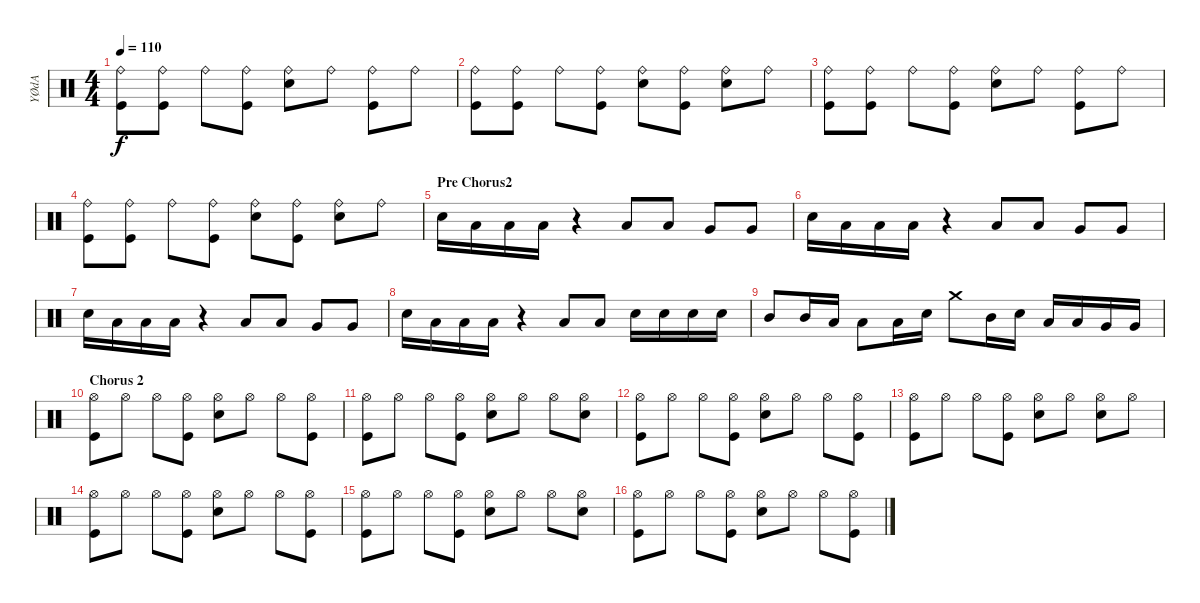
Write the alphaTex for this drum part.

\track ("YØdA" "YØdA") {instrument percussion}
\staff {score}
\articulation defaults
\ts (4 4)
\tempo 110
\clef neutral
\ks c
("Ride (bell)" "Kick (hit)").8{dy f} ("Ride (bell)" "Kick (hit)").8 "Ride (bell)".8 ("Ride (bell)" "Kick (hit)").8 ("Ride (bell)" "Electric Snare (hit)").8 "Ride (bell)".8 ("Ride (bell)" "Kick (hit)").8 "Ride (bell)".8 |
("Ride (bell)" "Kick (hit)").8 ("Ride (bell)" "Kick (hit)").8 "Ride (bell)".8 ("Ride (bell)" "Kick (hit)").8 ("Ride (bell)" "Electric Snare (hit)").8 ("Ride (bell)" "Kick (hit)").8 ("Ride (bell)" "Electric Snare (hit)").8 "Ride (bell)".8 |
("Ride (bell)" "Kick (hit)").8 ("Ride (bell)" "Kick (hit)").8 "Ride (bell)".8 ("Ride (bell)" "Kick (hit)").8 ("Ride (bell)" "Electric Snare (hit)").8 "Ride (bell)".8 ("Ride (bell)" "Kick (hit)").8 "Ride (bell)".8 |
("Ride (bell)" "Kick (hit)").8 ("Ride (bell)" "Kick (hit)").8 "Ride (bell)".8 ("Ride (bell)" "Kick (hit)").8 ("Ride (bell)" "Electric Snare (hit)").8 ("Ride (bell)" "Kick (hit)").8 ("Ride (bell)" "Electric Snare (hit)").8 "Ride (bell)".8 |
\section ("" "Pre Chorus2")
"Electric Snare (hit)".16 "Low Tom (hit)".16 "Low Tom (hit)".16 "Low Tom (hit)".16 r.4 "Low Tom (hit)".8 "Low Tom (hit)".8 "Very Low Tom (hit)".8 "Very Low Tom (hit)".8 |
"Electric Snare (hit)".16 "Low Tom (hit)".16 "Low Tom (hit)".16 "Low Tom (hit)".16 r.4 "Low Tom (hit)".8 "Low Tom (hit)".8 "Very Low Tom (hit)".8 "Very Low Tom (hit)".8 |
"Electric Snare (hit)".16 "Low Tom (hit)".16 "Low Tom (hit)".16 "Low Tom (hit)".16 r.4 "Low Tom (hit)".8 "Low Tom (hit)".8 "Very Low Tom (hit)".8 "Very Low Tom (hit)".8 |
"Electric Snare (hit)".16 "Low Tom (hit)".16 "Low Tom (hit)".16 "Low Tom (hit)".16 r.4 "Low Tom (hit)".8 "Low Tom (hit)".8 "Electric Snare (hit)".16 "Electric Snare (hit)".16 "Electric Snare (hit)".16 "Electric Snare (hit)".16 |
"Mid Tom (hit)".8 "Mid Tom (hit)".16 "Low Tom (hit)".16 "Low Tom (hit)".8 "Low Tom (hit)".16 "Electric Snare (hit)".16 "Crash medium (hit)".8 "Mid Tom (hit)".16 "Electric Snare (hit)".16 "Low Tom (hit)".16 "Low Tom (hit)".16 "Very Low Tom (hit)".16 "Very Low Tom (hit)".16 |
\section ("" "Chorus 2")
("Hi-Hat (open)" "Kick (hit)").8 "Hi-Hat (open)".8 "Hi-Hat (open)".8 ("Hi-Hat (open)" "Kick (hit)").8 ("Hi-Hat (open)" "Electric Snare (hit)").8 "Hi-Hat (open)".8 "Hi-Hat (open)".8 ("Hi-Hat (open)" "Kick (hit)").8 |
("Hi-Hat (open)" "Kick (hit)").8 "Hi-Hat (open)".8 "Hi-Hat (open)".8 ("Hi-Hat (open)" "Kick (hit)").8 ("Hi-Hat (open)" "Electric Snare (hit)").8 "Hi-Hat (open)".8 "Hi-Hat (open)".8 ("Hi-Hat (open)" "Electric Snare (hit)").8 |
("Hi-Hat (open)" "Kick (hit)").8 "Hi-Hat (open)".8 "Hi-Hat (open)".8 ("Hi-Hat (open)" "Kick (hit)").8 ("Hi-Hat (open)" "Electric Snare (hit)").8 "Hi-Hat (open)".8 "Hi-Hat (open)".8 ("Hi-Hat (open)" "Kick (hit)").8 |
("Hi-Hat (open)" "Kick (hit)").8 "Hi-Hat (open)".8 "Hi-Hat (open)".8 ("Hi-Hat (open)" "Kick (hit)").8 ("Hi-Hat (open)" "Electric Snare (hit)").8 "Hi-Hat (open)".8 ("Hi-Hat (open)" "Electric Snare (hit)").8 "Hi-Hat (open)".8 |
("Hi-Hat (open)" "Kick (hit)").8 "Hi-Hat (open)".8 "Hi-Hat (open)".8 ("Hi-Hat (open)" "Kick (hit)").8 ("Hi-Hat (open)" "Electric Snare (hit)").8 "Hi-Hat (open)".8 "Hi-Hat (open)".8 ("Hi-Hat (open)" "Kick (hit)").8 |
("Hi-Hat (open)" "Kick (hit)").8 "Hi-Hat (open)".8 "Hi-Hat (open)".8 ("Hi-Hat (open)" "Kick (hit)").8 ("Hi-Hat (open)" "Electric Snare (hit)").8 "Hi-Hat (open)".8 "Hi-Hat (open)".8 ("Hi-Hat (open)" "Electric Snare (hit)").8 |
("Hi-Hat (open)" "Kick (hit)").8 "Hi-Hat (open)".8 "Hi-Hat (open)".8 ("Hi-Hat (open)" "Kick (hit)").8 ("Hi-Hat (open)" "Electric Snare (hit)").8 "Hi-Hat (open)".8 "Hi-Hat (open)".8 ("Hi-Hat (open)" "Kick (hit)").8
